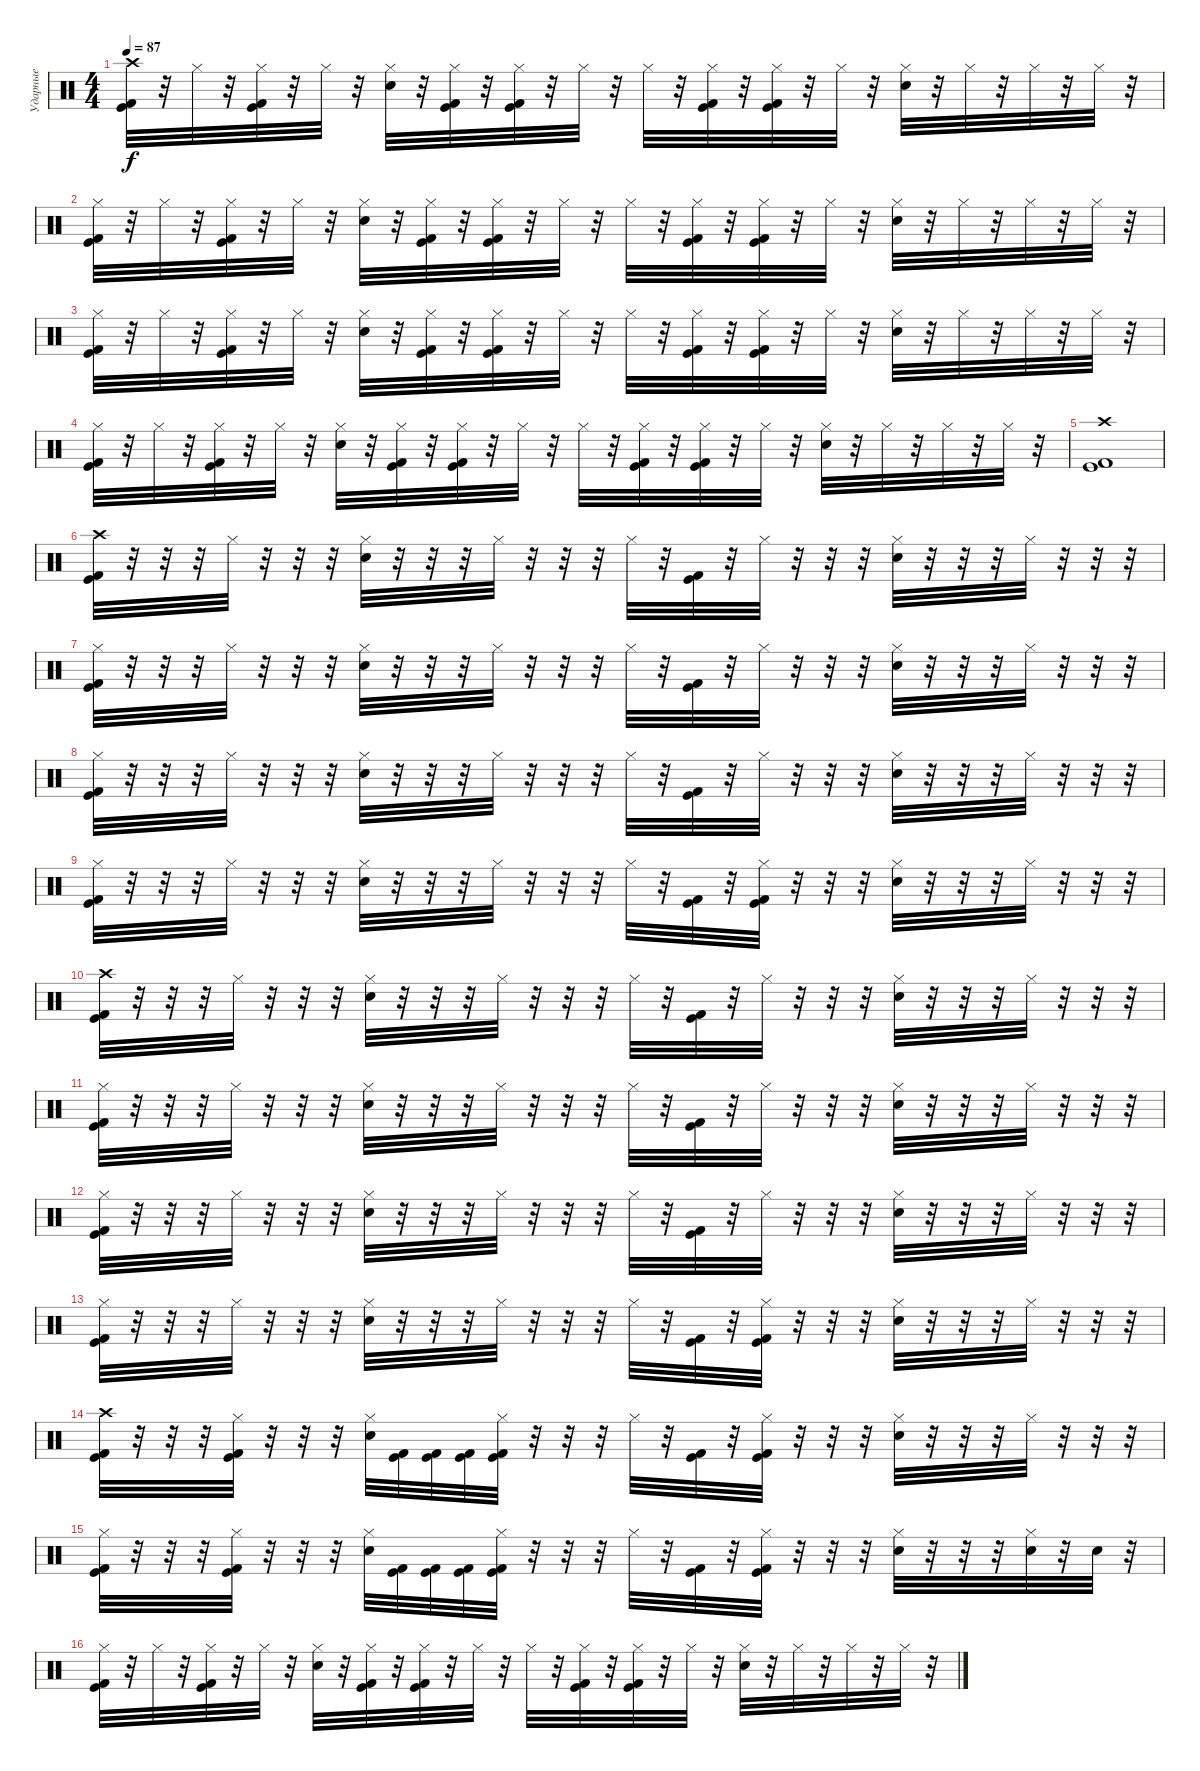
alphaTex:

\track ("Ударные" "Ударные") {instrument percussion}
\staff {score}
\articulation defaults
\ts (4 4)
\tempo 87
\clef neutral
\ks c
("Crash high (hit)" "Kick (hit) 2" "Kick (hit)").32{dy f} r.32 "Hi-Hat (closed)".32 r.32 ("Hi-Hat (closed)" "Kick (hit) 2" "Kick (hit)").32 r.32 "Hi-Hat (closed)".32 r.32 ("Hi-Hat (closed)" "Electric Snare (hit)").32 r.32 ("Hi-Hat (closed)" "Kick (hit) 2" "Kick (hit)").32 r.32 ("Hi-Hat (closed)" "Kick (hit) 2" "Kick (hit)").32 r.32 "Hi-Hat (closed)".32 r.32 "Hi-Hat (closed)".32 r.32 ("Hi-Hat (closed)" "Kick (hit) 2" "Kick (hit)").32 r.32 ("Hi-Hat (closed)" "Kick (hit) 2" "Kick (hit)").32 r.32 "Hi-Hat (closed)".32 r.32 ("Hi-Hat (closed)" "Electric Snare (hit)").32 r.32 "Hi-Hat (closed)".32 r.32 "Hi-Hat (closed)".32 r.32 "Hi-Hat (closed)".32 r.32 |
("Hi-Hat (closed)" "Kick (hit) 2" "Kick (hit)").32 r.32 "Hi-Hat (closed)".32 r.32 ("Hi-Hat (closed)" "Kick (hit) 2" "Kick (hit)").32 r.32 "Hi-Hat (closed)".32 r.32 ("Hi-Hat (closed)" "Electric Snare (hit)").32 r.32 ("Hi-Hat (closed)" "Kick (hit) 2" "Kick (hit)").32 r.32 ("Hi-Hat (closed)" "Kick (hit) 2" "Kick (hit)").32 r.32 "Hi-Hat (closed)".32 r.32 "Hi-Hat (closed)".32 r.32 ("Hi-Hat (closed)" "Kick (hit) 2" "Kick (hit)").32 r.32 ("Hi-Hat (closed)" "Kick (hit) 2" "Kick (hit)").32 r.32 "Hi-Hat (closed)".32 r.32 ("Hi-Hat (closed)" "Electric Snare (hit)").32 r.32 "Hi-Hat (closed)".32 r.32 "Hi-Hat (closed)".32 r.32 "Hi-Hat (closed)".32 r.32 |
("Hi-Hat (closed)" "Kick (hit) 2" "Kick (hit)").32 r.32 "Hi-Hat (closed)".32 r.32 ("Hi-Hat (closed)" "Kick (hit) 2" "Kick (hit)").32 r.32 "Hi-Hat (closed)".32 r.32 ("Hi-Hat (closed)" "Electric Snare (hit)").32 r.32 ("Hi-Hat (closed)" "Kick (hit) 2" "Kick (hit)").32 r.32 ("Hi-Hat (closed)" "Kick (hit) 2" "Kick (hit)").32 r.32 "Hi-Hat (closed)".32 r.32 "Hi-Hat (closed)".32 r.32 ("Hi-Hat (closed)" "Kick (hit) 2" "Kick (hit)").32 r.32 ("Hi-Hat (closed)" "Kick (hit) 2" "Kick (hit)").32 r.32 "Hi-Hat (closed)".32 r.32 ("Hi-Hat (closed)" "Electric Snare (hit)").32 r.32 "Hi-Hat (closed)".32 r.32 "Hi-Hat (closed)".32 r.32 "Hi-Hat (closed)".32 r.32 |
("Hi-Hat (closed)" "Kick (hit) 2" "Kick (hit)").32 r.32 "Hi-Hat (closed)".32 r.32 ("Hi-Hat (closed)" "Kick (hit) 2" "Kick (hit)").32 r.32 "Hi-Hat (closed)".32 r.32 ("Hi-Hat (closed)" "Electric Snare (hit)").32 r.32 ("Hi-Hat (closed)" "Kick (hit) 2" "Kick (hit)").32 r.32 ("Hi-Hat (closed)" "Kick (hit) 2" "Kick (hit)").32 r.32 "Hi-Hat (closed)".32 r.32 "Hi-Hat (closed)".32 r.32 ("Hi-Hat (closed)" "Kick (hit) 2" "Kick (hit)").32 r.32 ("Hi-Hat (closed)" "Kick (hit) 2" "Kick (hit)").32 r.32 "Hi-Hat (closed)".32 r.32 ("Hi-Hat (closed)" "Electric Snare (hit)").32 r.32 "Hi-Hat (closed)".32 r.32 "Hi-Hat (closed)".32 r.32 "Hi-Hat (closed)".32 r.32 |
("Crash high (hit)" "Kick (hit) 2" "Kick (hit)").1 |
("Crash high (hit)" "Kick (hit) 2" "Kick (hit)").32 r.32 r.32 r.32 "Hi-Hat (closed)".32 r.32 r.32 r.32 ("Hi-Hat (closed)" "Electric Snare (hit)").32 r.32 r.32 r.32 "Hi-Hat (closed)".32 r.32 r.32 r.32 "Hi-Hat (closed)".32 r.32 ("Kick (hit) 2" "Kick (hit)").32 r.32 "Hi-Hat (closed)".32 r.32 r.32 r.32 ("Hi-Hat (closed)" "Electric Snare (hit)").32 r.32 r.32 r.32 "Hi-Hat (closed)".32 r.32 r.32 r.32 |
("Hi-Hat (closed)" "Kick (hit) 2" "Kick (hit)").32 r.32 r.32 r.32 "Hi-Hat (closed)".32 r.32 r.32 r.32 ("Hi-Hat (closed)" "Electric Snare (hit)").32 r.32 r.32 r.32 "Hi-Hat (closed)".32 r.32 r.32 r.32 "Hi-Hat (closed)".32 r.32 ("Kick (hit) 2" "Kick (hit)").32 r.32 "Hi-Hat (closed)".32 r.32 r.32 r.32 ("Hi-Hat (closed)" "Electric Snare (hit)").32 r.32 r.32 r.32 "Hi-Hat (closed)".32 r.32 r.32 r.32 |
("Hi-Hat (closed)" "Kick (hit) 2" "Kick (hit)").32 r.32 r.32 r.32 "Hi-Hat (closed)".32 r.32 r.32 r.32 ("Hi-Hat (closed)" "Electric Snare (hit)").32 r.32 r.32 r.32 "Hi-Hat (closed)".32 r.32 r.32 r.32 "Hi-Hat (closed)".32 r.32 ("Kick (hit) 2" "Kick (hit)").32 r.32 "Hi-Hat (closed)".32 r.32 r.32 r.32 ("Hi-Hat (closed)" "Electric Snare (hit)").32 r.32 r.32 r.32 "Hi-Hat (closed)".32 r.32 r.32 r.32 |
("Hi-Hat (closed)" "Kick (hit) 2" "Kick (hit)").32 r.32 r.32 r.32 "Hi-Hat (closed)".32 r.32 r.32 r.32 ("Hi-Hat (closed)" "Electric Snare (hit)").32 r.32 r.32 r.32 "Hi-Hat (closed)".32 r.32 r.32 r.32 "Hi-Hat (closed)".32 r.32 ("Kick (hit) 2" "Kick (hit)").32 r.32 ("Hi-Hat (closed)" "Kick (hit) 2" "Kick (hit)").32 r.32 r.32 r.32 ("Hi-Hat (closed)" "Electric Snare (hit)").32 r.32 r.32 r.32 "Hi-Hat (closed)".32 r.32 r.32 r.32 |
("Crash high (hit)" "Kick (hit) 2" "Kick (hit)").32 r.32 r.32 r.32 "Hi-Hat (closed)".32 r.32 r.32 r.32 ("Hi-Hat (closed)" "Electric Snare (hit)").32 r.32 r.32 r.32 "Hi-Hat (closed)".32 r.32 r.32 r.32 "Hi-Hat (closed)".32 r.32 ("Kick (hit) 2" "Kick (hit)").32 r.32 "Hi-Hat (closed)".32 r.32 r.32 r.32 ("Hi-Hat (closed)" "Electric Snare (hit)").32 r.32 r.32 r.32 "Hi-Hat (closed)".32 r.32 r.32 r.32 |
("Hi-Hat (closed)" "Kick (hit) 2" "Kick (hit)").32 r.32 r.32 r.32 "Hi-Hat (closed)".32 r.32 r.32 r.32 ("Hi-Hat (closed)" "Electric Snare (hit)").32 r.32 r.32 r.32 "Hi-Hat (closed)".32 r.32 r.32 r.32 "Hi-Hat (closed)".32 r.32 ("Kick (hit) 2" "Kick (hit)").32 r.32 "Hi-Hat (closed)".32 r.32 r.32 r.32 ("Hi-Hat (closed)" "Electric Snare (hit)").32 r.32 r.32 r.32 "Hi-Hat (closed)".32 r.32 r.32 r.32 |
("Hi-Hat (closed)" "Kick (hit) 2" "Kick (hit)").32 r.32 r.32 r.32 "Hi-Hat (closed)".32 r.32 r.32 r.32 ("Hi-Hat (closed)" "Electric Snare (hit)").32 r.32 r.32 r.32 "Hi-Hat (closed)".32 r.32 r.32 r.32 "Hi-Hat (closed)".32 r.32 ("Kick (hit) 2" "Kick (hit)").32 r.32 "Hi-Hat (closed)".32 r.32 r.32 r.32 ("Hi-Hat (closed)" "Electric Snare (hit)").32 r.32 r.32 r.32 "Hi-Hat (closed)".32 r.32 r.32 r.32 |
("Hi-Hat (closed)" "Kick (hit) 2" "Kick (hit)").32 r.32 r.32 r.32 "Hi-Hat (closed)".32 r.32 r.32 r.32 ("Hi-Hat (closed)" "Electric Snare (hit)").32 r.32 r.32 r.32 "Hi-Hat (closed)".32 r.32 r.32 r.32 "Hi-Hat (closed)".32 r.32 ("Kick (hit) 2" "Kick (hit)").32 r.32 ("Hi-Hat (closed)" "Kick (hit) 2" "Kick (hit)").32 r.32 r.32 r.32 ("Hi-Hat (closed)" "Electric Snare (hit)").32 r.32 r.32 r.32 "Hi-Hat (closed)".32 r.32 r.32 r.32 |
("Crash high (hit)" "Kick (hit) 2" "Kick (hit)").32 r.32 r.32 r.32 ("Hi-Hat (closed)" "Kick (hit) 2" "Kick (hit)").32 r.32 r.32 r.32 ("Hi-Hat (closed)" "Electric Snare (hit)").32 ("Kick (hit) 2" "Kick (hit)").32 ("Kick (hit) 2" "Kick (hit)").32 ("Kick (hit) 2" "Kick (hit)").32 ("Hi-Hat (closed)" "Kick (hit) 2" "Kick (hit)").32 r.32 r.32 r.32 "Hi-Hat (closed)".32 r.32 ("Kick (hit) 2" "Kick (hit)").32 r.32 ("Hi-Hat (closed)" "Kick (hit) 2" "Kick (hit)").32 r.32 r.32 r.32 ("Hi-Hat (closed)" "Electric Snare (hit)").32 r.32 r.32 r.32 "Hi-Hat (closed)".32 r.32 r.32 r.32 |
("Hi-Hat (closed)" "Kick (hit) 2" "Kick (hit)").32 r.32 r.32 r.32 ("Hi-Hat (closed)" "Kick (hit) 2" "Kick (hit)").32 r.32 r.32 r.32 ("Hi-Hat (closed)" "Electric Snare (hit)").32 ("Kick (hit) 2" "Kick (hit)").32 ("Kick (hit) 2" "Kick (hit)").32 ("Kick (hit) 2" "Kick (hit)").32 ("Hi-Hat (closed)" "Kick (hit) 2" "Kick (hit)").32 r.32 r.32 r.32 "Hi-Hat (closed)".32 r.32 ("Kick (hit) 2" "Kick (hit)").32 r.32 ("Hi-Hat (closed)" "Kick (hit) 2" "Kick (hit)").32 r.32 r.32 r.32 ("Hi-Hat (closed)" "Electric Snare (hit)").32 r.32 r.32 r.32 ("Hi-Hat (closed)" "Electric Snare (hit)").32 r.32 "Electric Snare (hit)".32 r.32 |
("Hi-Hat (closed)" "Kick (hit) 2" "Kick (hit)").32 r.32 "Hi-Hat (closed)".32 r.32 ("Hi-Hat (closed)" "Kick (hit) 2" "Kick (hit)").32 r.32 "Hi-Hat (closed)".32 r.32 ("Hi-Hat (closed)" "Electric Snare (hit)").32 r.32 ("Hi-Hat (closed)" "Kick (hit) 2" "Kick (hit)").32 r.32 ("Hi-Hat (closed)" "Kick (hit) 2" "Kick (hit)").32 r.32 "Hi-Hat (closed)".32 r.32 "Hi-Hat (closed)".32 r.32 ("Hi-Hat (closed)" "Kick (hit) 2" "Kick (hit)").32 r.32 ("Hi-Hat (closed)" "Kick (hit) 2" "Kick (hit)").32 r.32 "Hi-Hat (closed)".32 r.32 ("Hi-Hat (closed)" "Electric Snare (hit)").32 r.32 "Hi-Hat (closed)".32 r.32 "Hi-Hat (closed)".32 r.32 "Hi-Hat (closed)".32 r.32
